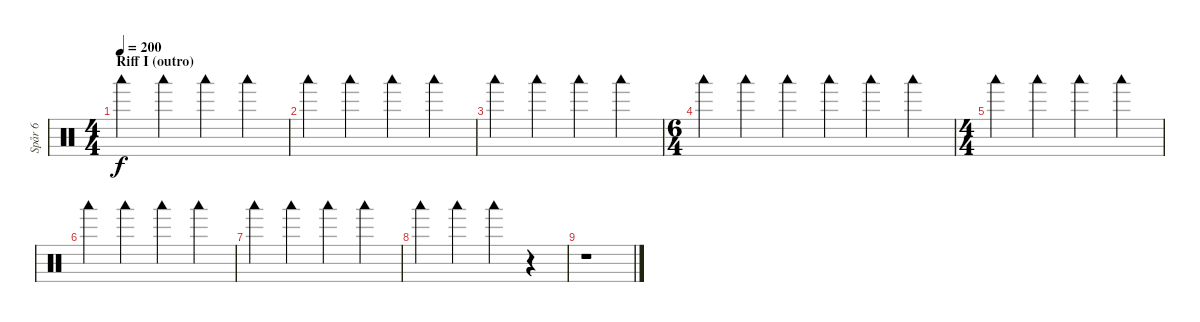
\track ("Spår 6" "Spår 6") {instrument percussion}
\staff {score}
\articulation defaults
\ts (4 4)
\section ("" "Riff I (outro)")
\tempo 200
\clef neutral
\ks c "Woodblock low (hit)".4{dy f} "Woodblock low (hit)".4 "Woodblock low (hit)".4 "Woodblock low (hit)".4
|
"Woodblock low (hit)".4 "Woodblock low (hit)".4 "Woodblock low (hit)".4 "Woodblock low (hit)".4 |
"Woodblock low (hit)".4 "Woodblock low (hit)".4 "Woodblock low (hit)".4 "Woodblock low (hit)".4 |
\ts (6 4)
"Woodblock low (hit)".4 "Woodblock low (hit)".4 "Woodblock low (hit)".4 "Woodblock low (hit)".4 "Woodblock low (hit)".4 "Woodblock low (hit)".4 |
\ts (4 4)
"Woodblock low (hit)".4 "Woodblock low (hit)".4 "Woodblock low (hit)".4 "Woodblock low (hit)".4 |
"Woodblock low (hit)".4 "Woodblock low (hit)".4 "Woodblock low (hit)".4 "Woodblock low (hit)".4 |
"Woodblock low (hit)".4 "Woodblock low (hit)".4 "Woodblock low (hit)".4 "Woodblock low (hit)".4 |
"Woodblock low (hit)".4 "Woodblock low (hit)".4 "Woodblock low (hit)".4 r.4 |
r.1
